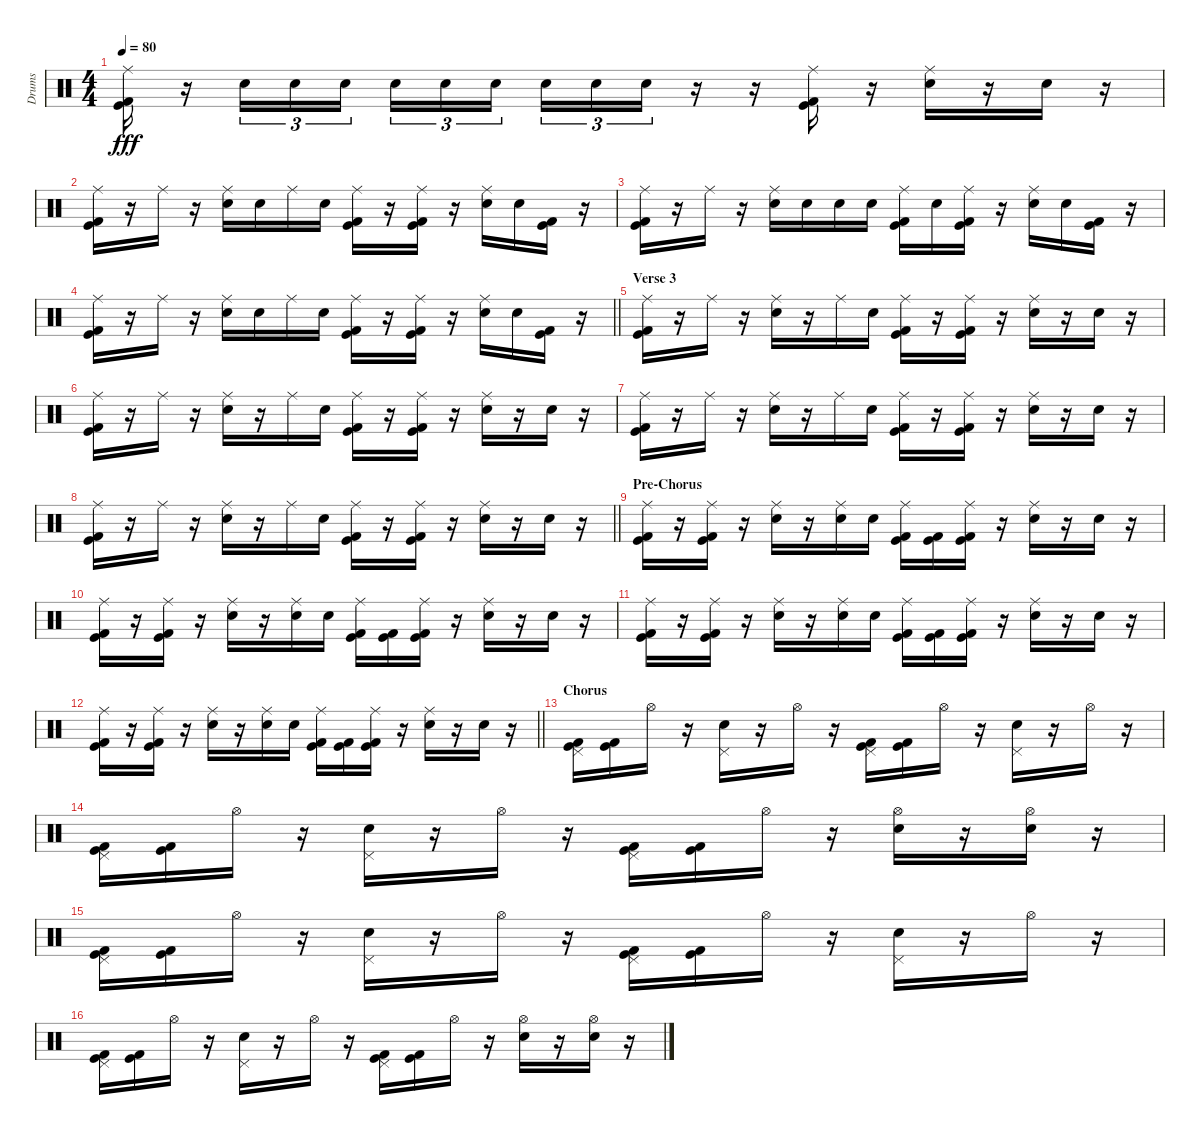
\track ("Drums" "Drums") {instrument percussion}
\staff {score}
\articulation defaults
\ts (4 4)
\tempo 80
\clef neutral
\ks c
("Ride (middle)" "Kick (hit)" "Kick (hit) 2").16{dy fff} r.16 "Snare (hit) 2".16{tu (3 2)} "Snare (hit) 2".16{tu (3 2)} "Snare (hit) 2".16{tu (3 2)} "Snare (hit) 2".16{tu (3 2)} "Snare (hit) 2".16{tu (3 2)} "Snare (hit) 2".16{tu (3 2) beam splitsecondary} "Snare (hit) 2".16{tu (3 2)} "Snare (hit) 2".16{tu (3 2)} "Snare (hit) 2".16{tu (3 2)} r.16 r.16 ("Ride (middle)" "Kick (hit)" "Kick (hit) 2").16 r.16 ("Ride (middle)" "Snare (hit) 2").16 r.16 "Snare (hit) 2".16 r.16 |
("Ride (middle)" "Kick (hit)" "Kick (hit) 2").16 r.16 "Ride (middle)".16 r.16 ("Ride (middle)" "Snare (hit) 2").16 "Snare (hit) 2".16 "Ride (middle)".16 "Snare (hit) 2".16 ("Ride (middle)" "Kick (hit)" "Kick (hit) 2").16 r.16 ("Ride (middle)" "Kick (hit)" "Kick (hit) 2").16 r.16 ("Ride (middle)" "Snare (hit) 2").16 "Snare (hit) 2".16 ("Kick (hit)" "Kick (hit) 2").16 r.16 |
("Ride (middle)" "Kick (hit)" "Kick (hit) 2").16 r.16 "Ride (middle)".16 r.16 ("Ride (middle)" "Snare (hit) 2").16 "Snare (hit) 2".16 "Snare (hit) 2".16 "Snare (hit) 2".16 ("Ride (middle)" "Kick (hit)" "Kick (hit) 2").16 "Snare (hit) 2".16 ("Ride (middle)" "Kick (hit)" "Kick (hit) 2").16 r.16 ("Ride (middle)" "Snare (hit) 2").16 "Snare (hit) 2".16 ("Kick (hit)" "Kick (hit) 2").16 r.16 |
\barLineRight lightlight
("Ride (middle)" "Kick (hit)" "Kick (hit) 2").16 r.16 "Ride (middle)".16 r.16 ("Ride (middle)" "Snare (hit) 2").16 "Snare (hit) 2".16 "Ride (middle)".16 "Snare (hit) 2".16 ("Ride (middle)" "Kick (hit)" "Kick (hit) 2").16 r.16 ("Ride (middle)" "Kick (hit)" "Kick (hit) 2").16 r.16 ("Ride (middle)" "Snare (hit) 2").16 "Snare (hit) 2".16 ("Kick (hit)" "Kick (hit) 2").16 r.16 |
\section ("" "Verse 3")
("Ride (middle)" "Kick (hit)" "Kick (hit) 2").16 r.16 "Ride (middle)".16 r.16 ("Ride (middle)" "Snare (hit) 2").16 r.16 "Ride (middle)".16 "Snare (hit) 2".16 ("Ride (middle)" "Kick (hit)" "Kick (hit) 2").16 r.16 ("Ride (middle)" "Kick (hit)" "Kick (hit) 2").16 r.16 ("Ride (middle)" "Snare (hit) 2").16 r.16 "Snare (hit) 2".16 r.16 |
("Ride (middle)" "Kick (hit)" "Kick (hit) 2").16 r.16 "Ride (middle)".16 r.16 ("Ride (middle)" "Snare (hit) 2").16 r.16 "Ride (middle)".16 "Snare (hit) 2".16 ("Ride (middle)" "Kick (hit)" "Kick (hit) 2").16 r.16 ("Ride (middle)" "Kick (hit)" "Kick (hit) 2").16 r.16 ("Ride (middle)" "Snare (hit) 2").16 r.16 "Snare (hit) 2".16 r.16 |
("Ride (middle)" "Kick (hit)" "Kick (hit) 2").16 r.16 "Ride (middle)".16 r.16 ("Ride (middle)" "Snare (hit) 2").16 r.16 "Ride (middle)".16 "Snare (hit) 2".16 ("Ride (middle)" "Kick (hit)" "Kick (hit) 2").16 r.16 ("Ride (middle)" "Kick (hit)" "Kick (hit) 2").16 r.16 ("Ride (middle)" "Snare (hit) 2").16 r.16 "Snare (hit) 2".16 r.16 |
\barLineRight lightlight
("Ride (middle)" "Kick (hit)" "Kick (hit) 2").16 r.16 "Ride (middle)".16 r.16 ("Ride (middle)" "Snare (hit) 2").16 r.16 "Ride (middle)".16 "Snare (hit) 2".16 ("Ride (middle)" "Kick (hit)" "Kick (hit) 2").16 r.16 ("Ride (middle)" "Kick (hit)" "Kick (hit) 2").16 r.16 ("Ride (middle)" "Snare (hit) 2").16 r.16 "Snare (hit) 2".16 r.16 |
\section ("" "Pre-Chorus")
("Ride (middle)" "Kick (hit)" "Kick (hit) 2").16 r.16 ("Ride (middle)" "Kick (hit)" "Kick (hit) 2").16 r.16 ("Ride (middle)" "Snare (hit) 2").16 r.16 ("Ride (middle)" "Snare (hit) 2").16 "Snare (hit) 2".16 ("Ride (middle)" "Kick (hit)" "Kick (hit) 2").16 ("Kick (hit)" "Kick (hit) 2").16 ("Ride (middle)" "Kick (hit)" "Kick (hit) 2").16 r.16 ("Ride (middle)" "Snare (hit) 2").16 r.16 "Snare (hit) 2".16 r.16 |
("Ride (middle)" "Kick (hit)" "Kick (hit) 2").16 r.16 ("Ride (middle)" "Kick (hit)" "Kick (hit) 2").16 r.16 ("Ride (middle)" "Snare (hit) 2").16 r.16 ("Ride (middle)" "Snare (hit) 2").16 "Snare (hit) 2".16 ("Ride (middle)" "Kick (hit)" "Kick (hit) 2").16 ("Kick (hit)" "Kick (hit) 2").16 ("Ride (middle)" "Kick (hit)" "Kick (hit) 2").16 r.16 ("Ride (middle)" "Snare (hit) 2").16 r.16 "Snare (hit) 2".16 r.16 |
("Ride (middle)" "Kick (hit)" "Kick (hit) 2").16 r.16 ("Ride (middle)" "Kick (hit)" "Kick (hit) 2").16 r.16 ("Ride (middle)" "Snare (hit) 2").16 r.16 ("Ride (middle)" "Snare (hit) 2").16 "Snare (hit) 2".16 ("Ride (middle)" "Kick (hit)" "Kick (hit) 2").16 ("Kick (hit)" "Kick (hit) 2").16 ("Ride (middle)" "Kick (hit)" "Kick (hit) 2").16 r.16 ("Ride (middle)" "Snare (hit) 2").16 r.16 "Snare (hit) 2".16 r.16 |
\barLineRight lightlight
("Ride (middle)" "Kick (hit)" "Kick (hit) 2").16 r.16 ("Ride (middle)" "Kick (hit)" "Kick (hit) 2").16 r.16 ("Ride (middle)" "Snare (hit) 2").16 r.16 ("Ride (middle)" "Snare (hit) 2").16 "Snare (hit) 2".16 ("Ride (middle)" "Kick (hit)" "Kick (hit) 2").16 ("Kick (hit)" "Kick (hit) 2").16 ("Ride (middle)" "Kick (hit)" "Kick (hit) 2").16 r.16 ("Ride (middle)" "Snare (hit) 2").16 r.16 "Snare (hit) 2".16 r.16 |
\section ("" "Chorus")
("Pedal Hi-Hat (hit)" "Kick (hit)" "Kick (hit) 2").16 ("Kick (hit)" "Kick (hit) 2").16 "Hi-Hat (open)".16 r.16 ("Pedal Hi-Hat (hit)" "Snare (hit) 2").16 r.16 "Hi-Hat (open)".16 r.16 ("Pedal Hi-Hat (hit)" "Kick (hit)" "Kick (hit) 2").16 ("Kick (hit)" "Kick (hit) 2").16 "Hi-Hat (open)".16 r.16 ("Pedal Hi-Hat (hit)" "Snare (hit) 2").16 r.16 "Hi-Hat (open)".16 r.16 |
("Pedal Hi-Hat (hit)" "Kick (hit)" "Kick (hit) 2").16 ("Kick (hit)" "Kick (hit) 2").16 "Hi-Hat (open)".16 r.16 ("Pedal Hi-Hat (hit)" "Snare (hit) 2").16 r.16 "Hi-Hat (open)".16 r.16 ("Pedal Hi-Hat (hit)" "Kick (hit)" "Kick (hit) 2").16 ("Kick (hit)" "Kick (hit) 2").16 "Hi-Hat (open)".16 r.16 ("Hi-Hat (open)" "Snare (hit) 2").16 r.16 ("Hi-Hat (open)" "Snare (hit) 2").16 r.16 |
("Pedal Hi-Hat (hit)" "Kick (hit)" "Kick (hit) 2").16 ("Kick (hit)" "Kick (hit) 2").16 "Hi-Hat (open)".16 r.16 ("Pedal Hi-Hat (hit)" "Snare (hit) 2").16 r.16 "Hi-Hat (open)".16 r.16 ("Pedal Hi-Hat (hit)" "Kick (hit)" "Kick (hit) 2").16 ("Kick (hit)" "Kick (hit) 2").16 "Hi-Hat (open)".16 r.16 ("Pedal Hi-Hat (hit)" "Snare (hit) 2").16 r.16 "Hi-Hat (open)".16 r.16 |
("Pedal Hi-Hat (hit)" "Kick (hit)" "Kick (hit) 2").16 ("Kick (hit)" "Kick (hit) 2").16 "Hi-Hat (open)".16 r.16 ("Pedal Hi-Hat (hit)" "Snare (hit) 2").16 r.16 "Hi-Hat (open)".16 r.16 ("Pedal Hi-Hat (hit)" "Kick (hit)" "Kick (hit) 2").16 ("Kick (hit)" "Kick (hit) 2").16 "Hi-Hat (open)".16 r.16 ("Hi-Hat (open)" "Snare (hit) 2").16 r.16 ("Hi-Hat (open)" "Snare (hit) 2").16 r.16
